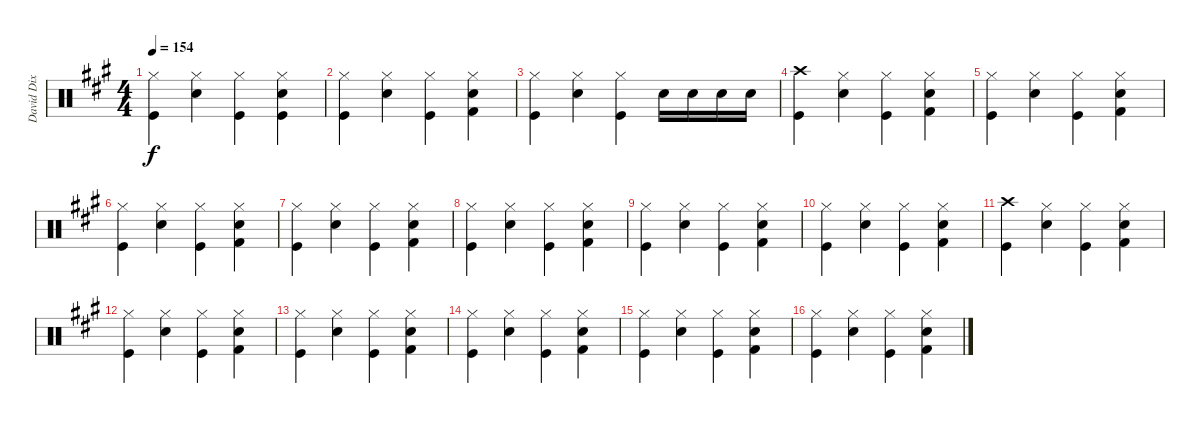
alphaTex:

\track ("David Dix Drums" "David Dix ") {instrument percussion}
\staff {score}
\articulation defaults
\ts (4 4)
\tempo 154
\clef neutral
\ks f#minor
("Hi-Hat (closed)" "Kick (hit)").4{dy f} ("Hi-Hat (closed)" "Snare (hit) 2").4 ("Hi-Hat (closed)" "Kick (hit)").4 ("Hi-Hat (closed)" "Snare (hit) 2" "Kick (hit)").4 |
("Hi-Hat (closed)" "Kick (hit)").4 ("Hi-Hat (closed)" "Snare (hit) 2").4 ("Hi-Hat (closed)" "Kick (hit)").4 ("Hi-Hat (closed)" "Snare (hit) 2" "Kick (hit) 2").4 |
("Hi-Hat (closed)" "Kick (hit)").4 ("Hi-Hat (closed)" "Snare (hit) 2").4 ("Hi-Hat (closed)" "Kick (hit)").4 "Snare (hit) 2".16 "Snare (hit) 2".16 "Snare (hit) 2".16 "Snare (hit) 2".16 |
("Crash high (hit)" "Kick (hit)").4 ("Hi-Hat (closed)" "Snare (hit) 2").4 ("Hi-Hat (closed)" "Kick (hit)").4 ("Hi-Hat (closed)" "Snare (hit) 2" "Kick (hit) 2").4 |
("Hi-Hat (closed)" "Kick (hit)").4 ("Hi-Hat (closed)" "Snare (hit) 2").4 ("Hi-Hat (closed)" "Kick (hit)").4 ("Hi-Hat (closed)" "Snare (hit) 2" "Kick (hit) 2").4 |
("Hi-Hat (closed)" "Kick (hit)").4 ("Hi-Hat (closed)" "Snare (hit) 2").4 ("Hi-Hat (closed)" "Kick (hit)").4 ("Hi-Hat (closed)" "Snare (hit) 2" "Kick (hit) 2").4 |
("Hi-Hat (closed)" "Kick (hit)").4 ("Hi-Hat (closed)" "Snare (hit) 2").4 ("Hi-Hat (closed)" "Kick (hit)").4 ("Hi-Hat (closed)" "Snare (hit) 2" "Kick (hit) 2").4 |
("Hi-Hat (closed)" "Kick (hit)").4 ("Hi-Hat (closed)" "Snare (hit) 2").4 ("Hi-Hat (closed)" "Kick (hit)").4 ("Hi-Hat (closed)" "Snare (hit) 2" "Kick (hit) 2").4 |
("Hi-Hat (closed)" "Kick (hit)").4 ("Hi-Hat (closed)" "Snare (hit) 2").4 ("Hi-Hat (closed)" "Kick (hit)").4 ("Hi-Hat (closed)" "Snare (hit) 2" "Kick (hit) 2").4 |
("Hi-Hat (closed)" "Kick (hit)").4 ("Hi-Hat (closed)" "Snare (hit) 2").4 ("Hi-Hat (closed)" "Kick (hit)").4 ("Hi-Hat (closed)" "Snare (hit) 2" "Kick (hit) 2").4 |
("Crash high (hit)" "Kick (hit)").4 ("Hi-Hat (closed)" "Snare (hit) 2").4 ("Hi-Hat (closed)" "Kick (hit)").4 ("Hi-Hat (closed)" "Snare (hit) 2" "Kick (hit) 2").4 |
("Hi-Hat (closed)" "Kick (hit)").4 ("Hi-Hat (closed)" "Snare (hit) 2").4 ("Hi-Hat (closed)" "Kick (hit)").4 ("Hi-Hat (closed)" "Snare (hit) 2" "Kick (hit) 2").4 |
("Hi-Hat (closed)" "Kick (hit)").4 ("Hi-Hat (closed)" "Snare (hit) 2").4 ("Hi-Hat (closed)" "Kick (hit)").4 ("Hi-Hat (closed)" "Snare (hit) 2" "Kick (hit) 2").4 |
("Hi-Hat (closed)" "Kick (hit)").4 ("Hi-Hat (closed)" "Snare (hit) 2").4 ("Hi-Hat (closed)" "Kick (hit)").4 ("Hi-Hat (closed)" "Snare (hit) 2" "Kick (hit) 2").4 |
("Hi-Hat (closed)" "Kick (hit)").4 ("Hi-Hat (closed)" "Snare (hit) 2").4 ("Hi-Hat (closed)" "Kick (hit)").4 ("Hi-Hat (closed)" "Snare (hit) 2" "Kick (hit) 2").4 |
("Hi-Hat (closed)" "Kick (hit)").4 ("Hi-Hat (closed)" "Snare (hit) 2").4 ("Hi-Hat (closed)" "Kick (hit)").4 ("Hi-Hat (closed)" "Snare (hit) 2" "Kick (hit) 2").4
